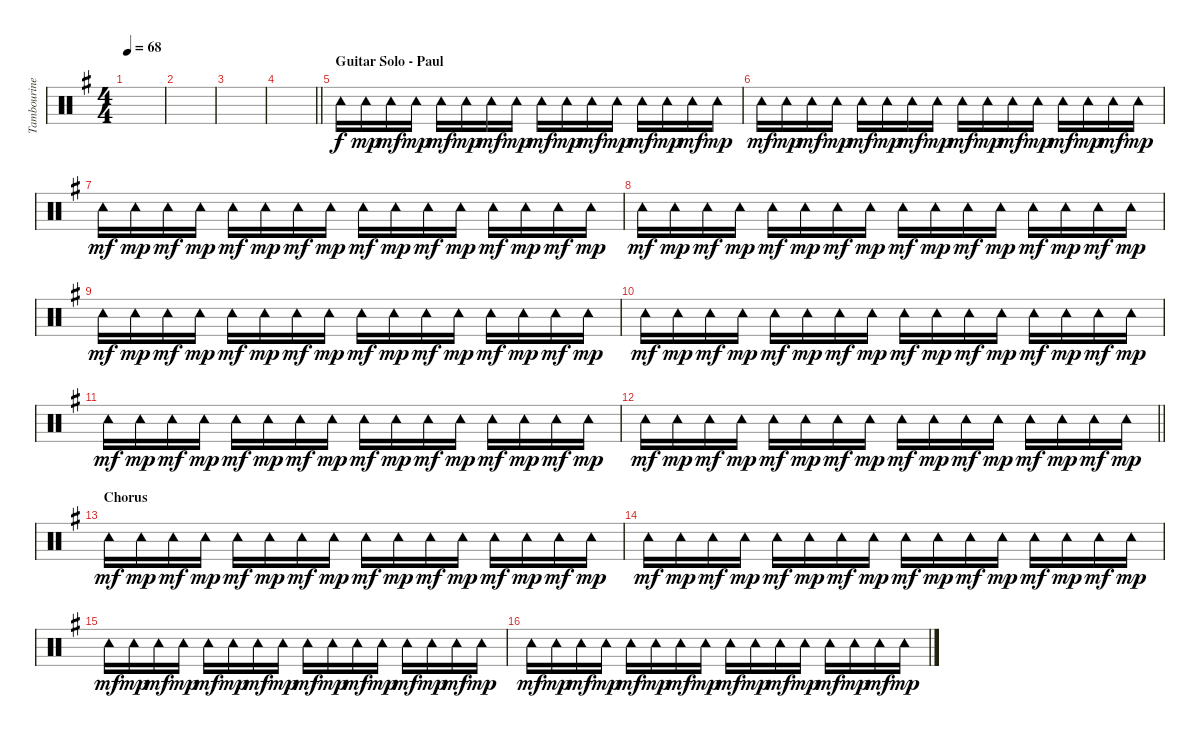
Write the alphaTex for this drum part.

\track ("Tambourine" "Tambourine") {instrument percussion}
\staff {score}
\articulation defaults
\ts (4 4)
\tempo 68
\clef neutral
\ks g
|
|
|
\barLineRight lightlight
|
\section ("" "Guitar Solo - Paul")
"Tambourine (hit)".16 "Tambourine (hit)".16{dy mp} "Tambourine (hit)".16{dy mf} "Tambourine (hit)".16{dy mp} "Tambourine (hit)".16{dy mf} "Tambourine (hit)".16{dy mp} "Tambourine (hit)".16{dy mf} "Tambourine (hit)".16{dy mp} "Tambourine (hit)".16{dy mf} "Tambourine (hit)".16{dy mp} "Tambourine (hit)".16{dy mf} "Tambourine (hit)".16{dy mp} "Tambourine (hit)".16{dy mf} "Tambourine (hit)".16{dy mp} "Tambourine (hit)".16{dy mf} "Tambourine (hit)".16{dy mp} |
"Tambourine (hit)".16{dy mf} "Tambourine (hit)".16{dy mp} "Tambourine (hit)".16{dy mf} "Tambourine (hit)".16{dy mp} "Tambourine (hit)".16{dy mf} "Tambourine (hit)".16{dy mp} "Tambourine (hit)".16{dy mf} "Tambourine (hit)".16{dy mp} "Tambourine (hit)".16{dy mf} "Tambourine (hit)".16{dy mp} "Tambourine (hit)".16{dy mf} "Tambourine (hit)".16{dy mp} "Tambourine (hit)".16{dy mf} "Tambourine (hit)".16{dy mp} "Tambourine (hit)".16{dy mf} "Tambourine (hit)".16{dy mp} |
"Tambourine (hit)".16{dy mf} "Tambourine (hit)".16{dy mp} "Tambourine (hit)".16{dy mf} "Tambourine (hit)".16{dy mp} "Tambourine (hit)".16{dy mf} "Tambourine (hit)".16{dy mp} "Tambourine (hit)".16{dy mf} "Tambourine (hit)".16{dy mp} "Tambourine (hit)".16{dy mf} "Tambourine (hit)".16{dy mp} "Tambourine (hit)".16{dy mf} "Tambourine (hit)".16{dy mp} "Tambourine (hit)".16{dy mf} "Tambourine (hit)".16{dy mp} "Tambourine (hit)".16{dy mf} "Tambourine (hit)".16{dy mp} |
"Tambourine (hit)".16{dy mf} "Tambourine (hit)".16{dy mp} "Tambourine (hit)".16{dy mf} "Tambourine (hit)".16{dy mp} "Tambourine (hit)".16{dy mf} "Tambourine (hit)".16{dy mp} "Tambourine (hit)".16{dy mf} "Tambourine (hit)".16{dy mp} "Tambourine (hit)".16{dy mf} "Tambourine (hit)".16{dy mp} "Tambourine (hit)".16{dy mf} "Tambourine (hit)".16{dy mp} "Tambourine (hit)".16{dy mf} "Tambourine (hit)".16{dy mp} "Tambourine (hit)".16{dy mf} "Tambourine (hit)".16{dy mp} |
"Tambourine (hit)".16{dy mf} "Tambourine (hit)".16{dy mp} "Tambourine (hit)".16{dy mf} "Tambourine (hit)".16{dy mp} "Tambourine (hit)".16{dy mf} "Tambourine (hit)".16{dy mp} "Tambourine (hit)".16{dy mf} "Tambourine (hit)".16{dy mp} "Tambourine (hit)".16{dy mf} "Tambourine (hit)".16{dy mp} "Tambourine (hit)".16{dy mf} "Tambourine (hit)".16{dy mp} "Tambourine (hit)".16{dy mf} "Tambourine (hit)".16{dy mp} "Tambourine (hit)".16{dy mf} "Tambourine (hit)".16{dy mp} |
"Tambourine (hit)".16{dy mf} "Tambourine (hit)".16{dy mp} "Tambourine (hit)".16{dy mf} "Tambourine (hit)".16{dy mp} "Tambourine (hit)".16{dy mf} "Tambourine (hit)".16{dy mp} "Tambourine (hit)".16{dy mf} "Tambourine (hit)".16{dy mp} "Tambourine (hit)".16{dy mf} "Tambourine (hit)".16{dy mp} "Tambourine (hit)".16{dy mf} "Tambourine (hit)".16{dy mp} "Tambourine (hit)".16{dy mf} "Tambourine (hit)".16{dy mp} "Tambourine (hit)".16{dy mf} "Tambourine (hit)".16{dy mp} |
"Tambourine (hit)".16{dy mf} "Tambourine (hit)".16{dy mp} "Tambourine (hit)".16{dy mf} "Tambourine (hit)".16{dy mp} "Tambourine (hit)".16{dy mf} "Tambourine (hit)".16{dy mp} "Tambourine (hit)".16{dy mf} "Tambourine (hit)".16{dy mp} "Tambourine (hit)".16{dy mf} "Tambourine (hit)".16{dy mp} "Tambourine (hit)".16{dy mf} "Tambourine (hit)".16{dy mp} "Tambourine (hit)".16{dy mf} "Tambourine (hit)".16{dy mp} "Tambourine (hit)".16{dy mf} "Tambourine (hit)".16{dy mp} |
\barLineRight lightlight "Tambourine (hit)".16{dy mf} "Tambourine (hit)".16{dy mp} "Tambourine (hit)".16{dy mf} "Tambourine (hit)".16{dy mp} "Tambourine (hit)".16{dy mf} "Tambourine (hit)".16{dy mp} "Tambourine (hit)".16{dy mf} "Tambourine (hit)".16{dy mp} "Tambourine (hit)".16{dy mf} "Tambourine (hit)".16{dy mp} "Tambourine (hit)".16{dy mf} "Tambourine (hit)".16{dy mp} "Tambourine (hit)".16{dy mf} "Tambourine (hit)".16{dy mp} "Tambourine (hit)".16{dy mf} "Tambourine (hit)".16{dy mp}
|
\section ("" "Chorus")
"Tambourine (hit)".16{dy mf} "Tambourine (hit)".16{dy mp} "Tambourine (hit)".16{dy mf} "Tambourine (hit)".16{dy mp} "Tambourine (hit)".16{dy mf} "Tambourine (hit)".16{dy mp} "Tambourine (hit)".16{dy mf} "Tambourine (hit)".16{dy mp} "Tambourine (hit)".16{dy mf} "Tambourine (hit)".16{dy mp} "Tambourine (hit)".16{dy mf} "Tambourine (hit)".16{dy mp} "Tambourine (hit)".16{dy mf} "Tambourine (hit)".16{dy mp} "Tambourine (hit)".16{dy mf} "Tambourine (hit)".16{dy mp} |
"Tambourine (hit)".16{dy mf} "Tambourine (hit)".16{dy mp} "Tambourine (hit)".16{dy mf} "Tambourine (hit)".16{dy mp} "Tambourine (hit)".16{dy mf} "Tambourine (hit)".16{dy mp} "Tambourine (hit)".16{dy mf} "Tambourine (hit)".16{dy mp} "Tambourine (hit)".16{dy mf} "Tambourine (hit)".16{dy mp} "Tambourine (hit)".16{dy mf} "Tambourine (hit)".16{dy mp} "Tambourine (hit)".16{dy mf} "Tambourine (hit)".16{dy mp} "Tambourine (hit)".16{dy mf} "Tambourine (hit)".16{dy mp} |
"Tambourine (hit)".16{dy mf} "Tambourine (hit)".16{dy mp} "Tambourine (hit)".16{dy mf} "Tambourine (hit)".16{dy mp} "Tambourine (hit)".16{dy mf} "Tambourine (hit)".16{dy mp} "Tambourine (hit)".16{dy mf} "Tambourine (hit)".16{dy mp} "Tambourine (hit)".16{dy mf} "Tambourine (hit)".16{dy mp} "Tambourine (hit)".16{dy mf} "Tambourine (hit)".16{dy mp} "Tambourine (hit)".16{dy mf} "Tambourine (hit)".16{dy mp} "Tambourine (hit)".16{dy mf} "Tambourine (hit)".16{dy mp} |
"Tambourine (hit)".16{dy mf} "Tambourine (hit)".16{dy mp} "Tambourine (hit)".16{dy mf} "Tambourine (hit)".16{dy mp} "Tambourine (hit)".16{dy mf} "Tambourine (hit)".16{dy mp} "Tambourine (hit)".16{dy mf} "Tambourine (hit)".16{dy mp} "Tambourine (hit)".16{dy mf} "Tambourine (hit)".16{dy mp} "Tambourine (hit)".16{dy mf} "Tambourine (hit)".16{dy mp} "Tambourine (hit)".16{dy mf} "Tambourine (hit)".16{dy mp} "Tambourine (hit)".16{dy mf} "Tambourine (hit)".16{dy mp}
